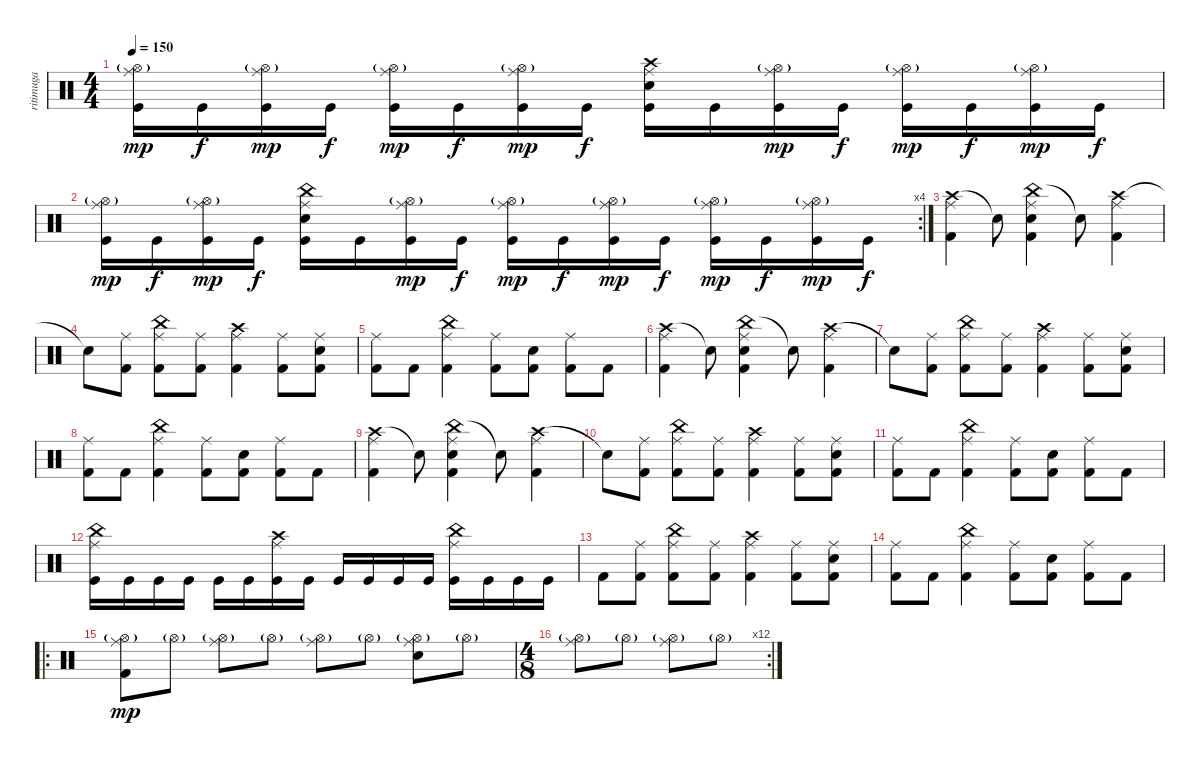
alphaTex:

\track ("ritimuga" "ritimuga") {instrument percussion}
\staff {score}
\articulation defaults
\ts (4 4)
\tempo 150
\clef neutral
\ks c
("Hi-Hat (open)"{g} "Ride (middle)" "Kick (hit)").16{dy mp} "Kick (hit)".16{dy f} ("Hi-Hat (open)"{g} "Ride (middle)" "Kick (hit)").16{dy mp} "Kick (hit)".16{dy f} ("Hi-Hat (open)"{g} "Ride (middle)" "Kick (hit)").16{dy mp} "Kick (hit)".16{dy f} ("Hi-Hat (open)"{g} "Ride (middle)" "Kick (hit)").16{dy mp} "Kick (hit)".16{dy f} ("Crash high (hit)" "Electric Snare (hit)" "Ride (middle)" "Kick (hit)").16 "Kick (hit)".16 ("Hi-Hat (open)"{g} "Ride (middle)" "Kick (hit)").16{dy mp} "Kick (hit)".16{dy f} ("Hi-Hat (open)"{g} "Ride (middle)" "Kick (hit)").16{dy mp} "Kick (hit)".16{dy f} ("Hi-Hat (open)"{g} "Ride (middle)" "Kick (hit)").16{dy mp} "Kick (hit)".16{dy f} |
\rc 4
("Hi-Hat (open)"{g} "Ride (middle)" "Kick (hit)").16{dy mp} "Kick (hit)".16{dy f} ("Hi-Hat (open)"{g} "Ride (middle)" "Kick (hit)").16{dy mp} "Kick (hit)".16{dy f} ("China (hit)" "Electric Snare (hit)" "Ride (middle)" "Kick (hit)").16 "Kick (hit)".16 ("Hi-Hat (open)"{g} "Ride (middle)" "Kick (hit)").16{dy mp} "Kick (hit)".16{dy f} ("Hi-Hat (open)"{g} "Ride (middle)" "Kick (hit)").16{dy mp} "Kick (hit)".16{dy f} ("Hi-Hat (open)"{g} "Ride (middle)" "Kick (hit)").16{dy mp} "Kick (hit)".16{dy f} ("Hi-Hat (open)"{g} "Ride (middle)" "Kick (hit)").16{dy mp} "Kick (hit)".16{dy f} ("Hi-Hat (open)"{g} "Ride (middle)" "Kick (hit)").16{dy mp} "Kick (hit)".16{dy f} |
("Crash high (hit)" "Ride (middle)" "Kick (hit) 2").4 "Snare (hit)"{t}.8 ("China (hit)" "Electric Snare (hit)" "Ride (middle)" "Kick (hit) 2").4 "Snare (hit)"{t}.8 ("Crash high (hit)" "Ride (middle)" "Kick (hit) 2").4 |
"Snare (hit)"{t}.8 ("Ride (middle)" "Kick (hit) 2").8 ("Ride (middle)" "China (hit)" "Kick (hit) 2").8 ("Ride (middle)" "Kick (hit) 2").8 ("Ride (middle)" "Crash high (hit)" "Kick (hit) 2").4 ("Ride (middle)" "Kick (hit) 2").8 ("Ride (middle)" "Electric Snare (hit)" "Kick (hit) 2").8 |
("Ride (middle)" "Kick (hit) 2").8 "Kick (hit) 2".8 ("Ride (middle)" "China (hit)" "Kick (hit) 2").4 ("Ride (middle)" "Kick (hit) 2").8 ("Electric Snare (hit)" "Kick (hit) 2").8 ("Ride (middle)" "Kick (hit) 2").8 "Kick (hit) 2".8 |
("Crash high (hit)" "Ride (middle)" "Kick (hit) 2").4 "Snare (hit)"{t}.8 ("China (hit)" "Electric Snare (hit)" "Ride (middle)" "Kick (hit) 2").4 "Snare (hit)"{t}.8 ("Crash high (hit)" "Ride (middle)" "Kick (hit) 2").4 |
"Snare (hit)"{t}.8 ("Ride (middle)" "Kick (hit) 2").8 ("Ride (middle)" "China (hit)" "Kick (hit) 2").8 ("Ride (middle)" "Kick (hit) 2").8 ("Ride (middle)" "Crash high (hit)" "Kick (hit) 2").4 ("Ride (middle)" "Kick (hit) 2").8 ("Ride (middle)" "Electric Snare (hit)" "Kick (hit) 2").8 |
("Ride (middle)" "Kick (hit) 2").8 "Kick (hit) 2".8 ("Ride (middle)" "China (hit)" "Kick (hit) 2").4 ("Ride (middle)" "Kick (hit) 2").8 ("Electric Snare (hit)" "Kick (hit) 2").8 ("Ride (middle)" "Kick (hit) 2").8 "Kick (hit) 2".8 |
("Crash high (hit)" "Ride (middle)" "Kick (hit) 2").4 "Snare (hit)"{t}.8 ("China (hit)" "Electric Snare (hit)" "Ride (middle)" "Kick (hit) 2").4 "Snare (hit)"{t}.8 ("Crash high (hit)" "Ride (middle)" "Kick (hit) 2").4 |
"Snare (hit)"{t}.8 ("Ride (middle)" "Kick (hit) 2").8 ("Ride (middle)" "China (hit)" "Kick (hit) 2").8 ("Ride (middle)" "Kick (hit) 2").8 ("Ride (middle)" "Crash high (hit)" "Kick (hit) 2").4 ("Ride (middle)" "Kick (hit) 2").8 ("Ride (middle)" "Electric Snare (hit)" "Kick (hit) 2").8 |
("Ride (middle)" "Kick (hit) 2").8 "Kick (hit) 2".8 ("Ride (middle)" "China (hit)" "Kick (hit) 2").4 ("Ride (middle)" "Kick (hit) 2").8 ("Electric Snare (hit)" "Kick (hit) 2").8 ("Ride (middle)" "Kick (hit) 2").8 "Kick (hit) 2".8 |
("China (hit)" "Ride (middle)" "Kick (hit)").16 "Kick (hit)".16 "Kick (hit)".16 "Kick (hit)".16 "Kick (hit)".16 "Kick (hit)".16 ("Crash high (hit)" "Ride (middle)" "Kick (hit)").16 "Kick (hit)".16 "Kick (hit)".16 "Kick (hit)".16 "Kick (hit)".16 "Kick (hit)".16 ("China (hit)" "Ride (middle)" "Kick (hit)").16 "Kick (hit)".16 "Kick (hit)".16 "Kick (hit)".16 |
"Kick (hit) 2".8 ("Ride (middle)" "Kick (hit) 2").8 ("Ride (middle)" "China (hit)" "Kick (hit) 2").8 ("Ride (middle)" "Kick (hit) 2").8 ("Ride (middle)" "Crash high (hit)" "Kick (hit) 2").4 ("Ride (middle)" "Kick (hit) 2").8 ("Ride (middle)" "Electric Snare (hit)" "Kick (hit) 2").8 |
("Ride (middle)" "Kick (hit) 2").8 "Kick (hit) 2".8 ("Ride (middle)" "China (hit)" "Kick (hit) 2").4 ("Ride (middle)" "Kick (hit) 2").8 ("Electric Snare (hit)" "Kick (hit) 2").8 ("Ride (middle)" "Kick (hit) 2").8 "Kick (hit) 2".8 |
\ro
("Hi-Hat (open)"{g} "Ride (middle)" "Kick (hit) 2").8{dy mp} "Hi-Hat (open)"{g}.8 ("Hi-Hat (open)"{g} "Ride (middle)").8 "Hi-Hat (open)"{g}.8 ("Hi-Hat (open)"{g} "Ride (middle)").8 "Hi-Hat (open)"{g}.8 ("Hi-Hat (open)"{g} "Ride (middle)" "Electric Snare (hit)").8 "Hi-Hat (open)"{g}.8 |
\rc 12
\ts (4 8)
("Hi-Hat (open)"{g} "Ride (middle)").8 "Hi-Hat (open)"{g}.8 ("Hi-Hat (open)"{g} "Ride (middle)").8 "Hi-Hat (open)"{g}.8
